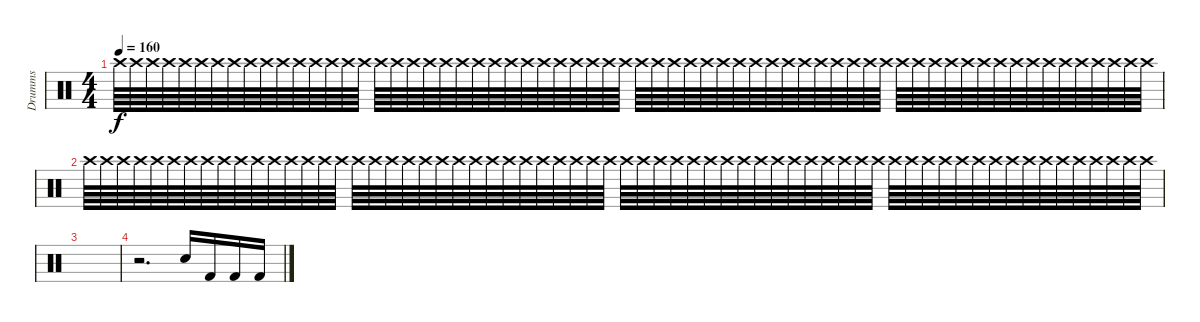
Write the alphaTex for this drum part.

\track ("Drumms" "Drumms") {instrument percussion}
\staff {score}
\articulation defaults
\ts (4 4)
\tempo 160
\clef neutral
\ks c "Crash high (hit)".64{dy f} "Crash high (hit)".64 "Crash high (hit)".64 "Crash high (hit)".64 "Crash high (hit)".64 "Crash high (hit)".64 "Crash high (hit)".64 "Crash high (hit)".64 "Crash high (hit)".64 "Crash high (hit)".64 "Crash high (hit)".64 "Crash high (hit)".64 "Crash high (hit)".64 "Crash high (hit)".64 "Crash high (hit)".64 "Crash high (hit)".64 "Crash high (hit)".64 "Crash high (hit)".64 "Crash high (hit)".64 "Crash high (hit)".64 "Crash high (hit)".64 "Crash high (hit)".64 "Crash high (hit)".64 "Crash high (hit)".64 "Crash high (hit)".64 "Crash high (hit)".64 "Crash high (hit)".64 "Crash high (hit)".64 "Crash high (hit)".64 "Crash high (hit)".64 "Crash high (hit)".64 "Crash high (hit)".64 "Crash high (hit)".64 "Crash high (hit)".64 "Crash high (hit)".64 "Crash high (hit)".64 "Crash high (hit)".64 "Crash high (hit)".64 "Crash high (hit)".64 "Crash high (hit)".64 "Crash high (hit)".64 "Crash high (hit)".64 "Crash high (hit)".64 "Crash high (hit)".64 "Crash high (hit)".64 "Crash high (hit)".64 "Crash high (hit)".64 "Crash high (hit)".64 "Crash high (hit)".64 "Crash high (hit)".64 "Crash high (hit)".64 "Crash high (hit)".64 "Crash high (hit)".64 "Crash high (hit)".64 "Crash high (hit)".64 "Crash high (hit)".64 "Crash high (hit)".64 "Crash high (hit)".64 "Crash high (hit)".64 "Crash high (hit)".64 "Crash high (hit)".64 "Crash high (hit)".64 "Crash high (hit)".64 "Crash high (hit)".64
|
"Crash high (hit)".64 "Crash high (hit)".64 "Crash high (hit)".64 "Crash high (hit)".64 "Crash high (hit)".64 "Crash high (hit)".64 "Crash high (hit)".64 "Crash high (hit)".64 "Crash high (hit)".64 "Crash high (hit)".64 "Crash high (hit)".64 "Crash high (hit)".64 "Crash high (hit)".64 "Crash high (hit)".64 "Crash high (hit)".64 "Crash high (hit)".64 "Crash high (hit)".64 "Crash high (hit)".64 "Crash high (hit)".64 "Crash high (hit)".64 "Crash high (hit)".64 "Crash high (hit)".64 "Crash high (hit)".64 "Crash high (hit)".64 "Crash high (hit)".64 "Crash high (hit)".64 "Crash high (hit)".64 "Crash high (hit)".64 "Crash high (hit)".64 "Crash high (hit)".64 "Crash high (hit)".64 "Crash high (hit)".64 "Crash high (hit)".64 "Crash high (hit)".64 "Crash high (hit)".64 "Crash high (hit)".64 "Crash high (hit)".64 "Crash high (hit)".64 "Crash high (hit)".64 "Crash high (hit)".64 "Crash high (hit)".64 "Crash high (hit)".64 "Crash high (hit)".64 "Crash high (hit)".64 "Crash high (hit)".64 "Crash high (hit)".64 "Crash high (hit)".64 "Crash high (hit)".64 "Crash high (hit)".64 "Crash high (hit)".64 "Crash high (hit)".64 "Crash high (hit)".64 "Crash high (hit)".64 "Crash high (hit)".64 "Crash high (hit)".64 "Crash high (hit)".64 "Crash high (hit)".64 "Crash high (hit)".64 "Crash high (hit)".64 "Crash high (hit)".64 "Crash high (hit)".64 "Crash high (hit)".64 "Crash high (hit)".64 "Crash high (hit)".64 |
|
r.2{d volume 13} "Electric Snare (hit)".16 "Kick (hit) 2".16 "Kick (hit) 2".16 "Kick (hit) 2".16
